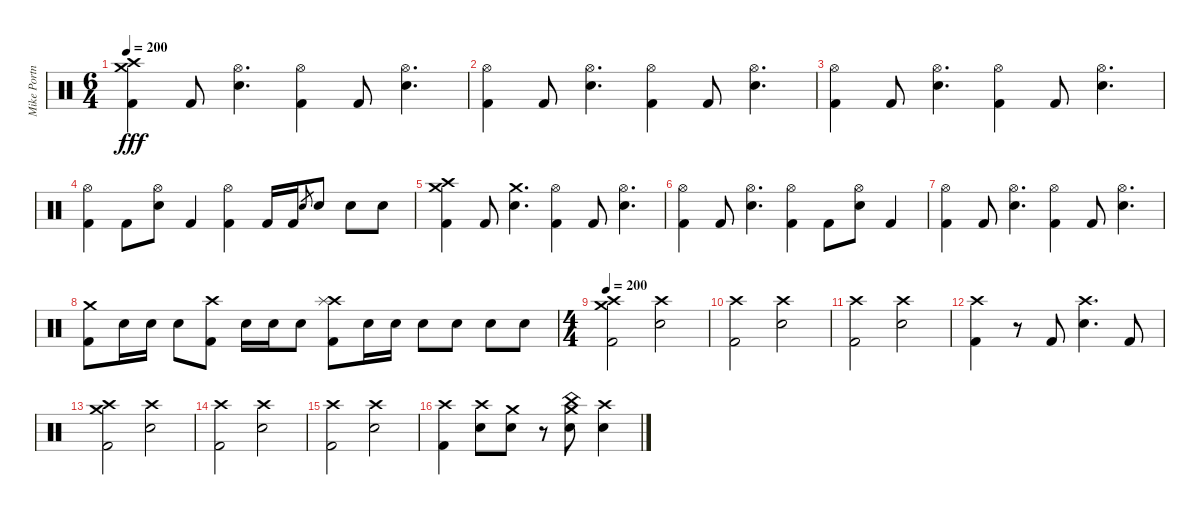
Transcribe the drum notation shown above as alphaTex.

\track ("Mike Portnoy" "Mike Portn") {instrument percussion}
\staff {score}
\articulation defaults
\ts (6 4)
\tempo 200
\clef neutral
\ks c
("Crash high (hit)" "Crash medium (hit)" "Kick (hit) 2").4{dy fff} "Kick (hit) 2".8 ("Hi-Hat (open)" "Electric Snare (hit)").4{d} ("Hi-Hat (open)" "Kick (hit) 2").4 "Kick (hit) 2".8 ("Hi-Hat (open)" "Electric Snare (hit)").4{d} |
("Hi-Hat (open)" "Kick (hit) 2").4 "Kick (hit) 2".8 ("Hi-Hat (open)" "Electric Snare (hit)").4{d} ("Hi-Hat (open)" "Kick (hit) 2").4 "Kick (hit) 2".8 ("Hi-Hat (open)" "Electric Snare (hit)").4{d} |
("Hi-Hat (open)" "Kick (hit) 2").4 "Kick (hit) 2".8 ("Hi-Hat (open)" "Electric Snare (hit)").4{d} ("Hi-Hat (open)" "Kick (hit) 2").4 "Kick (hit) 2".8 ("Hi-Hat (open)" "Electric Snare (hit)").4{d} |
("Hi-Hat (open)" "Kick (hit) 2").4 "Kick (hit) 2".8 ("Hi-Hat (open)" "Electric Snare (hit)").8 "Kick (hit) 2".4 ("Hi-Hat (open)" "Kick (hit) 2").4 "Kick (hit) 2".16 "Kick (hit) 2".16 "Electric Snare (hit)".8{gr} "Electric Snare (hit)".8 "Electric Snare (hit)".8 "Electric Snare (hit)".8 |
("Crash high (hit)" "Crash medium (hit)" "Kick (hit) 2").4 "Kick (hit) 2".8 ("Crash medium (hit)" "Electric Snare (hit)").4{d} ("Hi-Hat (open)" "Kick (hit) 2").4 "Kick (hit) 2".8 ("Hi-Hat (open)" "Electric Snare (hit)").4{d} |
("Hi-Hat (open)" "Kick (hit) 2").4 "Kick (hit) 2".8 ("Hi-Hat (open)" "Electric Snare (hit)").4{d} ("Hi-Hat (open)" "Kick (hit) 2").4 "Kick (hit) 2".8 ("Hi-Hat (open)" "Electric Snare (hit)").8 "Kick (hit) 2".4 |
("Hi-Hat (open)" "Kick (hit) 2").4 "Kick (hit) 2".8 ("Hi-Hat (open)" "Electric Snare (hit)").4{d} ("Hi-Hat (open)" "Kick (hit) 2").4 "Kick (hit) 2".8 ("Hi-Hat (open)" "Electric Snare (hit)").4{d} |
("Crash medium (hit)" "Kick (hit) 2").8 "Electric Snare (hit)".16 "Electric Snare (hit)".16 "Electric Snare (hit)".8 ("Crash high (hit)" "Kick (hit) 2").8 "Electric Snare (hit)".16 "Electric Snare (hit)".16 "Electric Snare (hit)".8 ("Crash high (hit)" "Splash (hit)" "Kick (hit) 2").8 "Electric Snare (hit)".16 "Electric Snare (hit)".16 "Electric Snare (hit)".8 "Electric Snare (hit)".8 "Electric Snare (hit)".8 "Electric Snare (hit)".8 |
\ts (4 4)
\tempo 200
("Crash high (hit)" "Crash medium (hit)" "Kick (hit) 2").2 ("Crash high (hit)" "Electric Snare (hit)").2 |
("Crash high (hit)" "Kick (hit) 2").2 ("Crash high (hit)" "Electric Snare (hit)").2 |
("Crash high (hit)" "Kick (hit) 2").2 ("Crash high (hit)" "Electric Snare (hit)").2 |
("Crash high (hit)" "Kick (hit) 2").4 r.8 "Kick (hit) 2".8 ("Crash high (hit)" "Electric Snare (hit)").4{d} "Kick (hit) 2".8 |
("Crash high (hit)" "Crash medium (hit)" "Kick (hit) 2").2 ("Crash high (hit)" "Electric Snare (hit)").2 |
("Crash high (hit)" "Kick (hit) 2").2 ("Crash high (hit)" "Electric Snare (hit)").2 |
("Crash high (hit)" "Kick (hit) 2").2 ("Crash high (hit)" "Electric Snare (hit)").2 |
("Crash high (hit)" "Kick (hit) 2").4 ("Crash high (hit)" "Electric Snare (hit)").8 ("Crash medium (hit)" "Electric Snare (hit)").8 r.8 ("China (hit)" "Crash medium (hit)" "Electric Snare (hit)").8 ("Crash high (hit)" "Electric Snare (hit)").4
